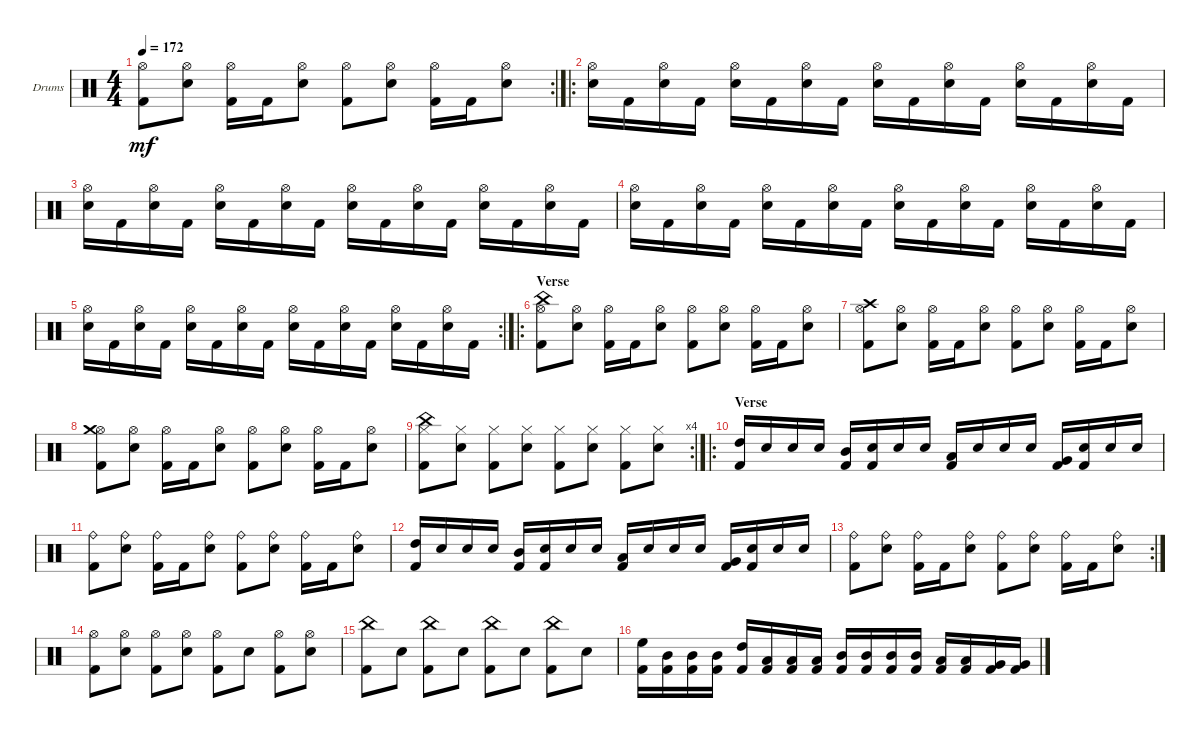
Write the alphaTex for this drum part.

\bracketExtendMode groupsimilarinstruments
\firstSystemTrackNameOrientation horizontal
\otherSystemsTrackNameOrientation horizontal
\track ("Drumkit" "Drums") {instrument percussion}
\staff {score}
\articulation defaults
\rc 2
\ts (4 4)
\tempo 172
\clef neutral
\ks c
("Kick (hit) 2" "Hi-Hat (open)").8{dy mf} ("Snare (hit) 2" "Hi-Hat (open)").8 ("Kick (hit) 2" "Hi-Hat (open)").16 "Kick (hit) 2".16 ("Snare (hit) 2" "Hi-Hat (open)").8 ("Kick (hit) 2" "Hi-Hat (open)").8 ("Snare (hit) 2" "Hi-Hat (open)").8 ("Kick (hit) 2" "Hi-Hat (open)").16 "Kick (hit) 2".16 ("Hi-Hat (open)" "Snare (hit) 2").8 |
\ro
("Snare (hit) 2" "Hi-Hat (open)").16 "Kick (hit) 2".16 ("Snare (hit) 2" "Hi-Hat (open)").16 "Kick (hit) 2".16 ("Snare (hit) 2" "Hi-Hat (open)").16 "Kick (hit) 2".16 ("Snare (hit) 2" "Hi-Hat (open)").16 "Kick (hit) 2".16 ("Snare (hit) 2" "Hi-Hat (open)").16 "Kick (hit) 2".16 ("Snare (hit) 2" "Hi-Hat (open)").16 "Kick (hit) 2".16 ("Snare (hit) 2" "Hi-Hat (open)").16 "Kick (hit) 2".16 ("Snare (hit) 2" "Hi-Hat (open)").16 "Kick (hit) 2".16 |
("Snare (hit) 2" "Hi-Hat (open)").16 "Kick (hit) 2".16 ("Snare (hit) 2" "Hi-Hat (open)").16 "Kick (hit) 2".16 ("Snare (hit) 2" "Hi-Hat (open)").16 "Kick (hit) 2".16 ("Snare (hit) 2" "Hi-Hat (open)").16 "Kick (hit) 2".16 ("Snare (hit) 2" "Hi-Hat (open)").16 "Kick (hit) 2".16 ("Snare (hit) 2" "Hi-Hat (open)").16 "Kick (hit) 2".16 ("Snare (hit) 2" "Hi-Hat (open)").16 "Kick (hit) 2".16 ("Snare (hit) 2" "Hi-Hat (open)").16 "Kick (hit) 2".16 |
("Snare (hit) 2" "Hi-Hat (open)").16 "Kick (hit) 2".16 ("Snare (hit) 2" "Hi-Hat (open)").16 "Kick (hit) 2".16 ("Snare (hit) 2" "Hi-Hat (open)").16 "Kick (hit) 2".16 ("Snare (hit) 2" "Hi-Hat (open)").16 "Kick (hit) 2".16 ("Snare (hit) 2" "Hi-Hat (open)").16 "Kick (hit) 2".16 ("Snare (hit) 2" "Hi-Hat (open)").16 "Kick (hit) 2".16 ("Snare (hit) 2" "Hi-Hat (open)").16 "Kick (hit) 2".16 ("Snare (hit) 2" "Hi-Hat (open)").16 "Kick (hit) 2".16 |
\rc 2
("Snare (hit) 2" "Hi-Hat (open)").16 "Kick (hit) 2".16 ("Snare (hit) 2" "Hi-Hat (open)").16 "Kick (hit) 2".16 ("Snare (hit) 2" "Hi-Hat (open)").16 "Kick (hit) 2".16 ("Snare (hit) 2" "Hi-Hat (open)").16 "Kick (hit) 2".16 ("Snare (hit) 2" "Hi-Hat (open)").16 "Kick (hit) 2".16 ("Snare (hit) 2" "Hi-Hat (open)").16 "Kick (hit) 2".16 ("Snare (hit) 2" "Hi-Hat (open)").16 "Kick (hit) 2".16 ("Snare (hit) 2" "Hi-Hat (open)").16 "Kick (hit) 2".16 |
\ro
\section ("" "Verse")
("Kick (hit) 2" "Hi-Hat (open)" "China (hit)").8 ("Snare (hit) 2" "Hi-Hat (open)").8 ("Kick (hit) 2" "Hi-Hat (open)").16 "Kick (hit) 2".16 ("Snare (hit) 2" "Hi-Hat (open)").8 ("Kick (hit) 2" "Hi-Hat (open)").8 ("Snare (hit) 2" "Hi-Hat (open)").8 ("Kick (hit) 2" "Hi-Hat (open)").16 "Kick (hit) 2".16 ("Snare (hit) 2" "Hi-Hat (open)").8 |
("Kick (hit) 2" "Hi-Hat (open)" "Crash high (hit)").8 ("Snare (hit) 2" "Hi-Hat (open)").8 ("Kick (hit) 2" "Hi-Hat (open)").16 "Kick (hit) 2".16 ("Snare (hit) 2" "Hi-Hat (open)").8 ("Kick (hit) 2" "Hi-Hat (open)").8 ("Snare (hit) 2" "Hi-Hat (open)").8 ("Kick (hit) 2" "Hi-Hat (open)").16 "Kick (hit) 2".16 ("Snare (hit) 2" "Hi-Hat (open)").8 |
("Kick (hit) 2" "Hi-Hat (open)" "Crash medium (hit)").8 ("Snare (hit) 2" "Hi-Hat (open)").8 ("Kick (hit) 2" "Hi-Hat (open)").16 "Kick (hit) 2".16 ("Snare (hit) 2" "Hi-Hat (open)").8 ("Kick (hit) 2" "Hi-Hat (open)").8 ("Snare (hit) 2" "Hi-Hat (open)").8 ("Kick (hit) 2" "Hi-Hat (open)").16 "Kick (hit) 2".16 ("Snare (hit) 2" "Hi-Hat (open)").8 |
\rc 4
("Kick (hit) 2" "Hi-Hat (closed)" "China (hit)").8 ("Snare (hit) 2" "Hi-Hat (closed)").8 ("Kick (hit) 2" "Hi-Hat (closed)").8 ("Snare (hit) 2" "Hi-Hat (closed)").8 ("Kick (hit) 2" "Hi-Hat (closed)").8 ("Snare (hit) 2" "Hi-Hat (closed)").8 ("Kick (hit) 2" "Hi-Hat (closed)").8 ("Hi-Hat (closed)" "Snare (hit) 2").8 |
\ro
\section ("" "Verse")
("Kick (hit) 2" "High Tom (hit)").16 "Snare (hit) 2".16 "Snare (hit) 2".16 "Snare (hit) 2".16 ("Kick (hit) 2" "Mid Tom (hit)").16 ("Snare (hit) 2" "Kick (hit) 2").16 "Snare (hit) 2".16 "Snare (hit) 2".16 ("Kick (hit) 2" "Low Tom (hit)").16 "Snare (hit) 2".16 "Snare (hit) 2".16 "Snare (hit) 2".16 ("Very Low Tom (hit)" "Kick (hit) 2").16 ("Kick (hit) 2" "Snare (hit) 2").16 "Snare (hit) 2".16 "Snare (hit) 2".16 |
("Kick (hit) 2" "Ride (bell)").8 ("Ride (bell)" "Snare (hit) 2").8 ("Kick (hit) 2" "Ride (bell)").16 "Kick (hit) 2".16 ("Snare (hit) 2" "Ride (bell)").8 ("Kick (hit) 2" "Ride (bell)").8 ("Ride (bell)" "Snare (hit) 2").8 ("Kick (hit) 2" "Ride (bell)").16 "Kick (hit) 2".16 ("Snare (hit) 2" "Ride (bell)").8 |
("Kick (hit) 2" "High Tom (hit)").16 "Snare (hit) 2".16 "Snare (hit) 2".16 "Snare (hit) 2".16 ("Kick (hit) 2" "Mid Tom (hit)").16 ("Snare (hit) 2" "Kick (hit) 2").16 "Snare (hit) 2".16 "Snare (hit) 2".16 ("Kick (hit) 2" "Low Tom (hit)").16 "Snare (hit) 2".16 "Snare (hit) 2".16 "Snare (hit) 2".16 ("Very Low Tom (hit)" "Kick (hit) 2").16 ("Kick (hit) 2" "Snare (hit) 2").16 "Snare (hit) 2".16 "Snare (hit) 2".16 |
\rc 2
("Kick (hit) 2" "Ride (bell)").8 ("Ride (bell)" "Snare (hit) 2").8 ("Kick (hit) 2" "Ride (bell)").16 "Kick (hit) 2".16 ("Snare (hit) 2" "Ride (bell)").8 ("Kick (hit) 2" "Ride (bell)").8 ("Ride (bell)" "Snare (hit) 2").8 ("Kick (hit) 2" "Ride (bell)").16 "Kick (hit) 2".16 ("Snare (hit) 2" "Ride (bell)").8 |
("Kick (hit) 2" "Hi-Hat (open)").8 ("Snare (hit) 2" "Hi-Hat (open)").8 ("Kick (hit) 2" "Hi-Hat (open)").8 ("Snare (hit) 2" "Hi-Hat (open)").8 ("Kick (hit) 2" "Hi-Hat (open)").8 "Snare (hit) 2".8 ("Kick (hit) 2" "Hi-Hat (open)").8 ("Snare (hit) 2" "Hi-Hat (open)").8 |
("Kick (hit) 2" "China (hit)").8 "Snare (hit) 2".8 ("Kick (hit) 2" "China (hit)").8 "Snare (hit) 2".8 ("Kick (hit) 2" "China (hit)").8 "Snare (hit) 2".8 ("Kick (hit) 2" "China (hit)").8 "Snare (hit) 2".8 |
("Kick (hit) 2" "High Floor Tom (hit)").16 ("Kick (hit) 2" "Mid Tom (hit)").16 ("Kick (hit) 2" "Mid Tom (hit)").16 ("Kick (hit) 2" "Mid Tom (hit)").16 ("Kick (hit) 2" "High Tom (hit)").16 ("Kick (hit) 2" "Low Tom (hit)").16 ("Kick (hit) 2" "Low Tom (hit)").16 ("Kick (hit) 2" "Low Tom (hit)").16 ("Kick (hit) 2" "Mid Tom (hit)").16 ("Kick (hit) 2" "Mid Tom (hit)").16 ("Kick (hit) 2" "Mid Tom (hit)").16 ("Kick (hit) 2" "Mid Tom (hit)").16 ("Kick (hit) 2" "Low Tom (hit)").16 ("Kick (hit) 2" "Low Tom (hit)").16 ("Kick (hit) 2" "Very Low Tom (hit)").16 ("Kick (hit) 2" "Very Low Tom (hit)").16
